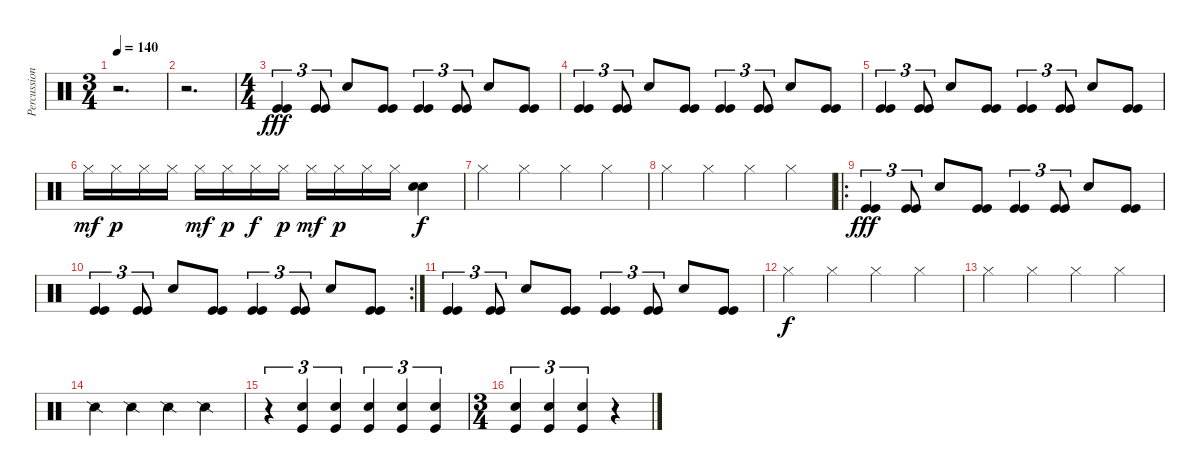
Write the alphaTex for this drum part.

\track ("Percussions" "Percussion") {instrument percussion}
\staff {score}
\articulation defaults
\ts (3 4)
\tempo 140
\clef neutral
\ks c
r.2{d dy fff} |
r.2{d} |
\ts (4 4)
("Kick (hit)" "Kick (hit)").4{tu (3 2)} ("Kick (hit)" "Kick (hit)").8{tu (3 2)} "Snare (hit) 2".8 ("Kick (hit)" "Kick (hit)").8 ("Kick (hit)" "Kick (hit)").4{tu (3 2)} ("Kick (hit)" "Kick (hit)").8{tu (3 2)} "Snare (hit) 2".8 ("Kick (hit)" "Kick (hit)").8 |
("Kick (hit)" "Kick (hit)").4{tu (3 2)} ("Kick (hit)" "Kick (hit)").8{tu (3 2)} "Snare (hit) 2".8 ("Kick (hit)" "Kick (hit)").8 ("Kick (hit)" "Kick (hit)").4{tu (3 2)} ("Kick (hit)" "Kick (hit)").8{tu (3 2)} "Snare (hit) 2".8 ("Kick (hit)" "Kick (hit)").8 |
("Kick (hit)" "Kick (hit)").4{tu (3 2)} ("Kick (hit)" "Kick (hit)").8{tu (3 2)} "Snare (hit) 2".8 ("Kick (hit)" "Kick (hit)").8 ("Kick (hit)" "Kick (hit)").4{tu (3 2)} ("Kick (hit)" "Kick (hit)").8{tu (3 2)} "Snare (hit) 2".8 ("Kick (hit)" "Kick (hit)").8 |
"Hi-Hat (closed)".16{dy mf} "Hi-Hat (closed)".16{dy p} "Hi-Hat (closed)".16 "Hi-Hat (closed)".16 "Hi-Hat (closed)".16{dy mf} "Hi-Hat (closed)".16{dy p} "Hi-Hat (closed)".16{dy f} "Hi-Hat (closed)".16{dy p} "Hi-Hat (closed)".16{dy mf} "Hi-Hat (closed)".16{dy p} "Hi-Hat (closed)".16 "Hi-Hat (closed)".16 ("Snare (hit) 2" "Snare (hit) 2").4{dy f} |
"Hi-Hat (closed)".4 "Hi-Hat (closed)".4 "Hi-Hat (closed)".4 "Hi-Hat (closed)".4 |
"Hi-Hat (closed)".4 "Hi-Hat (closed)".4 "Hi-Hat (closed)".4 "Hi-Hat (closed)".4 |
\ro
("Kick (hit)" "Kick (hit)").4{tu (3 2) dy fff} ("Kick (hit)" "Kick (hit)").8{tu (3 2)} "Snare (hit) 2".8 ("Kick (hit)" "Kick (hit)").8 ("Kick (hit)" "Kick (hit)").4{tu (3 2)} ("Kick (hit)" "Kick (hit)").8{tu (3 2)} "Snare (hit) 2".8 ("Kick (hit)" "Kick (hit)").8 |
\rc 2
("Kick (hit)" "Kick (hit)").4{tu (3 2)} ("Kick (hit)" "Kick (hit)").8{tu (3 2)} "Snare (hit) 2".8 ("Kick (hit)" "Kick (hit)").8 ("Kick (hit)" "Kick (hit)").4{tu (3 2)} ("Kick (hit)" "Kick (hit)").8{tu (3 2)} "Snare (hit) 2".8 ("Kick (hit)" "Kick (hit)").8 |
("Kick (hit)" "Kick (hit)").4{tu (3 2)} ("Kick (hit)" "Kick (hit)").8{tu (3 2)} "Snare (hit) 2".8 ("Kick (hit)" "Kick (hit)").8 ("Kick (hit)" "Kick (hit)").4{tu (3 2)} ("Kick (hit)" "Kick (hit)").8{tu (3 2)} "Snare (hit) 2".8 ("Kick (hit)" "Kick (hit)").8 |
"Hi-Hat (closed)".4{dy f} "Hi-Hat (closed)".4 "Hi-Hat (closed)".4 "Hi-Hat (closed)".4 |
"Hi-Hat (closed)".4 "Hi-Hat (closed)".4 "Hi-Hat (closed)".4 "Hi-Hat (closed)".4 |
"Snare (side stick) 2".4 "Snare (side stick) 2".4 "Snare (side stick) 2".4 "Snare (side stick) 2".4 |
r.4{tu (3 2)} ("Snare (hit) 2" "Kick (hit)").4{tu (3 2)} ("Snare (hit) 2" "Kick (hit)").4{tu (3 2)} ("Snare (hit) 2" "Kick (hit)").4{tu (3 2)} ("Snare (hit) 2" "Kick (hit)").4{tu (3 2)} ("Snare (hit) 2" "Kick (hit)").4{tu (3 2)} |
\ts (3 4)
("Snare (hit) 2" "Kick (hit)").4{tu (3 2)} ("Snare (hit) 2" "Kick (hit)").4{tu (3 2)} ("Snare (hit) 2" "Kick (hit)").4{tu (3 2)} r.4
